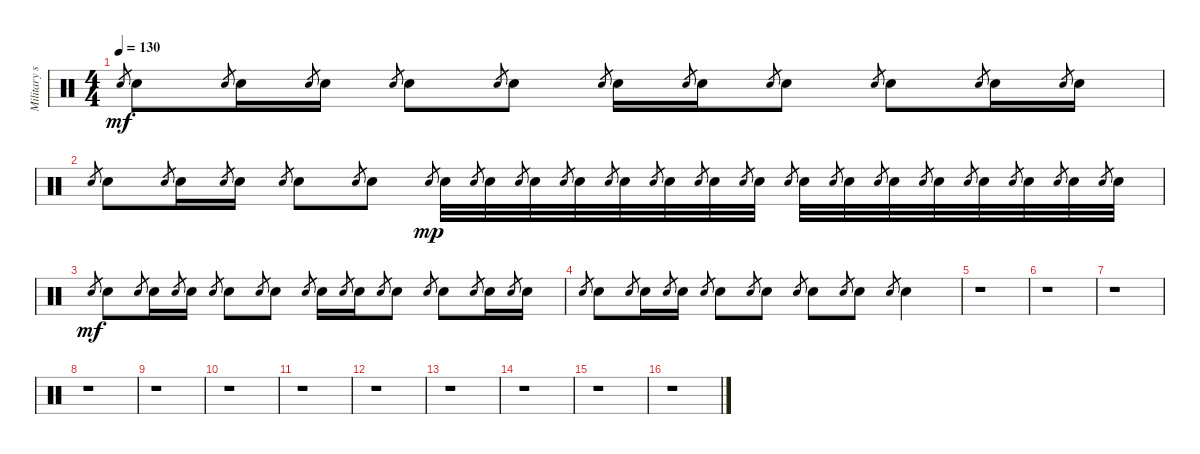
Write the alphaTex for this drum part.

\track ("Military snare" "Military s") {instrument percussion}
\staff {score}
\articulation defaults
\ts (4 4)
\tempo 130
\clef neutral
\ks c "Electric Snare (hit)".8{gr dy mf} "Electric Snare (hit)".8 "Electric Snare (hit)".8{gr} "Electric Snare (hit)".16 "Electric Snare (hit)".8{gr} "Electric Snare (hit)".16 "Electric Snare (hit)".8{gr} "Electric Snare (hit)".8 "Electric Snare (hit)".8{gr} "Electric Snare (hit)".8 "Electric Snare (hit)".8{gr} "Electric Snare (hit)".16 "Electric Snare (hit)".8{gr} "Electric Snare (hit)".16 "Electric Snare (hit)".8{gr} "Electric Snare (hit)".8 "Electric Snare (hit)".8{gr} "Electric Snare (hit)".8 "Electric Snare (hit)".8{gr} "Electric Snare (hit)".16 "Electric Snare (hit)".8{gr} "Electric Snare (hit)".16
|
"Electric Snare (hit)".8{gr} "Electric Snare (hit)".8 "Electric Snare (hit)".8{gr} "Electric Snare (hit)".16 "Electric Snare (hit)".8{gr} "Electric Snare (hit)".16 "Electric Snare (hit)".8{gr} "Electric Snare (hit)".8 "Electric Snare (hit)".8{gr} "Electric Snare (hit)".8 "Electric Snare (hit)".8{gr dy mp} "Electric Snare (hit)".32 "Electric Snare (hit)".8{gr} "Electric Snare (hit)".32 "Electric Snare (hit)".8{gr} "Electric Snare (hit)".32 "Electric Snare (hit)".8{gr} "Electric Snare (hit)".32 "Electric Snare (hit)".8{gr} "Electric Snare (hit)".32 "Electric Snare (hit)".8{gr} "Electric Snare (hit)".32 "Electric Snare (hit)".8{gr} "Electric Snare (hit)".32 "Electric Snare (hit)".8{gr} "Electric Snare (hit)".32 "Electric Snare (hit)".8{gr} "Electric Snare (hit)".32 "Electric Snare (hit)".8{gr} "Electric Snare (hit)".32 "Electric Snare (hit)".8{gr} "Electric Snare (hit)".32 "Electric Snare (hit)".8{gr} "Electric Snare (hit)".32 "Electric Snare (hit)".8{gr} "Electric Snare (hit)".32 "Electric Snare (hit)".8{gr} "Electric Snare (hit)".32 "Electric Snare (hit)".8{gr} "Electric Snare (hit)".32 "Electric Snare (hit)".8{gr} "Electric Snare (hit)".32 |
"Electric Snare (hit)".8{gr dy mf} "Electric Snare (hit)".8 "Electric Snare (hit)".8{gr} "Electric Snare (hit)".16 "Electric Snare (hit)".8{gr} "Electric Snare (hit)".16 "Electric Snare (hit)".8{gr} "Electric Snare (hit)".8 "Electric Snare (hit)".8{gr} "Electric Snare (hit)".8 "Electric Snare (hit)".8{gr} "Electric Snare (hit)".16 "Electric Snare (hit)".8{gr} "Electric Snare (hit)".16 "Electric Snare (hit)".8{gr} "Electric Snare (hit)".8 "Electric Snare (hit)".8{gr} "Electric Snare (hit)".8 "Electric Snare (hit)".8{gr} "Electric Snare (hit)".16 "Electric Snare (hit)".8{gr} "Electric Snare (hit)".16 |
"Electric Snare (hit)".8{gr} "Electric Snare (hit)".8 "Electric Snare (hit)".8{gr} "Electric Snare (hit)".16 "Electric Snare (hit)".8{gr} "Electric Snare (hit)".16 "Electric Snare (hit)".8{gr} "Electric Snare (hit)".8 "Electric Snare (hit)".8{gr} "Electric Snare (hit)".8 "Electric Snare (hit)".8{gr} "Electric Snare (hit)".8 "Electric Snare (hit)".8{gr} "Electric Snare (hit)".8 "Electric Snare (hit)".8{gr} "Electric Snare (hit)".4 |
r.1 |
r.1 |
r.1 |
r.1 |
r.1 |
r.1 |
r.1 |
r.1 |
r.1 |
r.1 |
r.1 |
r.1
